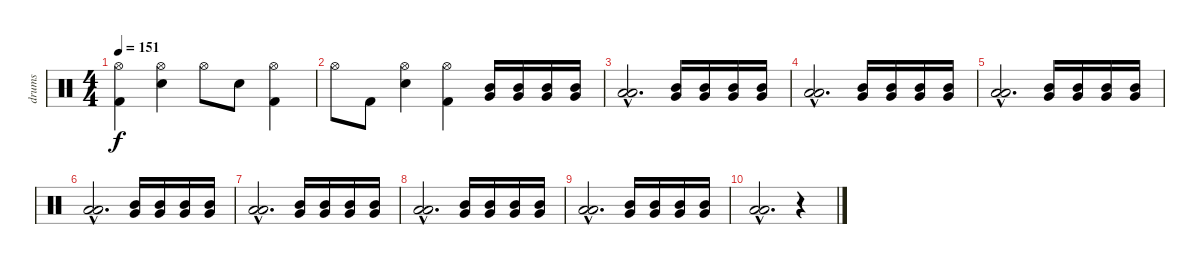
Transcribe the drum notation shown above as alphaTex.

\track ("drums" "drums") {instrument percussion}
\staff {score}
\articulation defaults
\ts (4 4)
\tempo 151
\clef neutral
\ks c
("Hi-Hat (open)" "Kick (hit) 2").4{dy f} ("Hi-Hat (open)" "Electric Snare (hit)").4 "Hi-Hat (open)".8 "Electric Snare (hit)".8 ("Hi-Hat (open)" "Kick (hit) 2").4 |
"Hi-Hat (open)".8 "Kick (hit) 2".8 ("Hi-Hat (open)" "Electric Snare (hit)").4 ("Hi-Hat (open)" "Kick (hit) 2").4 ("Very Low Tom (hit)" "Mid Tom (hit)").16 ("Very Low Tom (hit)" "Mid Tom (hit)").16 ("Very Low Tom (hit)" "Mid Tom (hit)").16 ("Very Low Tom (hit)" "Mid Tom (hit)").16 |
("Low Floor Tom (hit)"{hac} "Low Tom (hit)"{hac}).2{d} ("Very Low Tom (hit)" "Mid Tom (hit)").16 ("Very Low Tom (hit)" "Mid Tom (hit)").16 ("Very Low Tom (hit)" "Mid Tom (hit)").16 ("Very Low Tom (hit)" "Mid Tom (hit)").16 |
("Low Floor Tom (hit)"{hac} "Low Tom (hit)"{hac}).2{d} ("Very Low Tom (hit)" "Mid Tom (hit)").16 ("Very Low Tom (hit)" "Mid Tom (hit)").16 ("Very Low Tom (hit)" "Mid Tom (hit)").16 ("Very Low Tom (hit)" "Mid Tom (hit)").16 |
("Low Floor Tom (hit)"{hac} "Low Tom (hit)"{hac}).2{d} ("Very Low Tom (hit)" "Mid Tom (hit)").16 ("Very Low Tom (hit)" "Mid Tom (hit)").16 ("Very Low Tom (hit)" "Mid Tom (hit)").16 ("Very Low Tom (hit)" "Mid Tom (hit)").16 |
("Low Floor Tom (hit)"{hac} "Low Tom (hit)"{hac}).2{d} ("Very Low Tom (hit)" "Mid Tom (hit)").16 ("Very Low Tom (hit)" "Mid Tom (hit)").16 ("Very Low Tom (hit)" "Mid Tom (hit)").16 ("Very Low Tom (hit)" "Mid Tom (hit)").16 |
("Low Floor Tom (hit)"{hac} "Low Tom (hit)"{hac}).2{d} ("Very Low Tom (hit)" "Mid Tom (hit)").16 ("Very Low Tom (hit)" "Mid Tom (hit)").16 ("Very Low Tom (hit)" "Mid Tom (hit)").16 ("Very Low Tom (hit)" "Mid Tom (hit)").16 |
("Low Floor Tom (hit)"{hac} "Low Tom (hit)"{hac}).2{d} ("Very Low Tom (hit)" "Mid Tom (hit)").16 ("Very Low Tom (hit)" "Mid Tom (hit)").16 ("Very Low Tom (hit)" "Mid Tom (hit)").16 ("Very Low Tom (hit)" "Mid Tom (hit)").16 |
("Low Floor Tom (hit)"{hac} "Low Tom (hit)"{hac}).2{d} ("Very Low Tom (hit)" "Mid Tom (hit)").16 ("Very Low Tom (hit)" "Mid Tom (hit)").16 ("Very Low Tom (hit)" "Mid Tom (hit)").16 ("Very Low Tom (hit)" "Mid Tom (hit)").16 |
("Low Floor Tom (hit)"{hac} "Low Tom (hit)"{hac}).2{d} r.4
